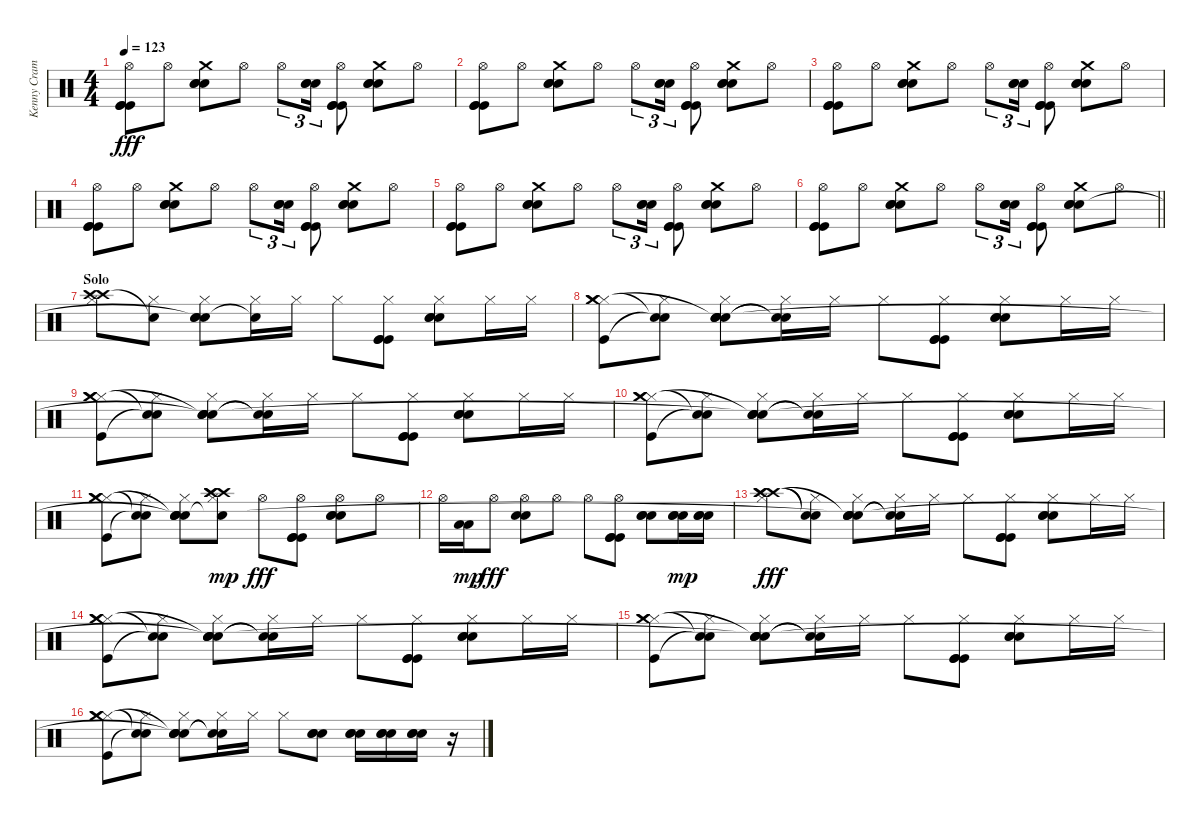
\track ("Kenny Cramme - Drums" "Kenny Cram") {instrument percussion}
\staff {score}
\articulation defaults
\ts (4 4)
\tempo 123
\clef neutral
\ks c
("Hi-Hat (open)" "Kick (hit)" "Kick (hit)" "Kick (hit)").8{dy fff} "Hi-Hat (open)".8 ("Crash medium (hit)" "Snare (hit) 2" "Snare (hit) 2" "Snare (hit) 2").8 "Hi-Hat (open)".8 "Hi-Hat (open)".8{tu (3 2)} ("Snare (hit) 2" "Snare (hit) 2" "Snare (hit) 2").16{tu (3 2)} ("Hi-Hat (open)" "Kick (hit)" "Kick (hit)" "Kick (hit)").8 ("Crash medium (hit)" "Snare (hit) 2" "Snare (hit) 2" "Snare (hit) 2").8 "Hi-Hat (open)".8 |
("Hi-Hat (open)" "Kick (hit)" "Kick (hit)" "Kick (hit)").8 "Hi-Hat (open)".8 ("Crash medium (hit)" "Snare (hit) 2" "Snare (hit) 2" "Snare (hit) 2").8 "Hi-Hat (open)".8 "Hi-Hat (open)".8{tu (3 2)} ("Snare (hit) 2" "Snare (hit) 2" "Snare (hit) 2").16{tu (3 2)} ("Hi-Hat (open)" "Kick (hit)" "Kick (hit)" "Kick (hit)").8 ("Crash medium (hit)" "Snare (hit) 2" "Snare (hit) 2" "Snare (hit) 2").8 "Hi-Hat (open)".8 |
("Hi-Hat (open)" "Kick (hit)" "Kick (hit)" "Kick (hit)").8 "Hi-Hat (open)".8 ("Crash medium (hit)" "Snare (hit) 2" "Snare (hit) 2" "Snare (hit) 2").8 "Hi-Hat (open)".8 "Hi-Hat (open)".8{tu (3 2)} ("Snare (hit) 2" "Snare (hit) 2" "Snare (hit) 2").16{tu (3 2)} ("Hi-Hat (open)" "Kick (hit)" "Kick (hit)" "Kick (hit)").8 ("Crash medium (hit)" "Snare (hit) 2" "Snare (hit) 2" "Snare (hit) 2").8 "Hi-Hat (open)".8 |
("Hi-Hat (open)" "Kick (hit)" "Kick (hit)" "Kick (hit)").8 "Hi-Hat (open)".8 ("Crash medium (hit)" "Snare (hit) 2" "Snare (hit) 2" "Snare (hit) 2").8 "Hi-Hat (open)".8 "Hi-Hat (open)".8{tu (3 2)} ("Snare (hit) 2" "Snare (hit) 2" "Snare (hit) 2").16{tu (3 2)} ("Hi-Hat (open)" "Kick (hit)" "Kick (hit)" "Kick (hit)").8 ("Crash medium (hit)" "Snare (hit) 2" "Snare (hit) 2" "Snare (hit) 2").8 "Hi-Hat (open)".8 |
("Hi-Hat (open)" "Kick (hit)" "Kick (hit)" "Kick (hit)").8 "Hi-Hat (open)".8 ("Crash medium (hit)" "Snare (hit) 2" "Snare (hit) 2" "Snare (hit) 2").8 "Hi-Hat (open)".8 "Hi-Hat (open)".8{tu (3 2)} ("Snare (hit) 2" "Snare (hit) 2" "Snare (hit) 2").16{tu (3 2)} ("Hi-Hat (open)" "Kick (hit)" "Kick (hit)" "Kick (hit)").8 ("Crash medium (hit)" "Snare (hit) 2" "Snare (hit) 2" "Snare (hit) 2").8 "Hi-Hat (open)".8 |
\barLineRight lightlight
("Hi-Hat (open)" "Kick (hit)" "Kick (hit)" "Kick (hit)").8 "Hi-Hat (open)".8 ("Crash medium (hit)" "Snare (hit) 2" "Snare (hit) 2" "Snare (hit) 2").8 "Hi-Hat (open)".8 "Hi-Hat (open)".8{tu (3 2)} ("Snare (hit) 2" "Snare (hit) 2" "Snare (hit) 2").16{tu (3 2)} ("Hi-Hat (open)" "Kick (hit)" "Kick (hit)" "Kick (hit)").8 ("Crash medium (hit)" "Snare (hit) 2" "Snare (hit) 2" "Snare (hit) 2").8 "Hi-Hat (open)".8 |
\section ("" "Solo")
("Hi-Hat (closed)" "Crash high (hit)" "Crash high (hit)").8 ("Hi-Hat (closed)" "Snare (hit)"{t}).8 ("Hi-Hat (closed)" "Snare (hit) 2" "Snare (hit) 2" "Snare (hit) 2"{t}).8 ("Hi-Hat (closed)" "Snare (hit)"{t}).16 "Hi-Hat (closed)".16 "Hi-Hat (closed)".8 ("Hi-Hat (closed)" "Kick (hit)" "Kick (hit)" "Kick (hit)").8 ("Hi-Hat (closed)" "Snare (hit) 2" "Snare (hit) 2" "Snare (hit) 2").8 "Hi-Hat (closed)".16 "Hi-Hat (closed)".16 |
("Hi-Hat (closed)" "Kick (hit)" "Crash medium (hit)" "Crash medium (hit)").8 ("Hi-Hat (closed)" "Snare (hit)"{t} "Snare (hit)"{t}).8 ("Hi-Hat (closed)" "Snare (hit) 2" "Snare (hit) 2" "Snare (hit) 2"{t} "Snare (hit)").8 ("Hi-Hat (closed)" "Snare (hit)"{t} "Snare (hit)"{t}).16 "Hi-Hat (closed)".16 "Hi-Hat (closed)".8 ("Hi-Hat (closed)" "Kick (hit)" "Kick (hit)" "Kick (hit)").8 ("Hi-Hat (closed)" "Snare (hit) 2" "Snare (hit) 2" "Snare (hit) 2").8 "Hi-Hat (closed)".16 "Hi-Hat (closed)".16 |
("Hi-Hat (closed)" "Kick (hit)" "Crash medium (hit)" "Crash medium (hit)").8 ("Hi-Hat (closed)" "Snare (hit)"{t} "Snare (hit)"{t}).8 ("Hi-Hat (closed)" "Snare (hit) 2" "Snare (hit) 2" "Snare (hit) 2"{t} "Snare (hit)"{t}).8 ("Hi-Hat (closed)" "Snare (hit)"{t} "Snare (hit)"{t}).16 "Hi-Hat (closed)".16 "Hi-Hat (closed)".8 ("Hi-Hat (closed)" "Kick (hit)" "Kick (hit)" "Kick (hit)").8 ("Hi-Hat (closed)" "Snare (hit) 2" "Snare (hit) 2" "Snare (hit) 2").8 "Hi-Hat (closed)".16 "Hi-Hat (closed)".16 |
("Hi-Hat (closed)" "Kick (hit)" "Crash medium (hit)" "Crash medium (hit)").8 ("Hi-Hat (closed)" "Snare (hit)"{t} "Snare (hit)"{t}).8 ("Hi-Hat (closed)" "Snare (hit) 2" "Snare (hit) 2" "Snare (hit) 2"{t} "Snare (hit)"{t}).8 ("Hi-Hat (closed)" "Snare (hit)"{t} "Snare (hit)"{t}).16 "Hi-Hat (closed)".16 "Hi-Hat (closed)".8 ("Hi-Hat (closed)" "Kick (hit)" "Kick (hit)" "Kick (hit)").8 ("Hi-Hat (closed)" "Snare (hit) 2" "Snare (hit) 2" "Snare (hit) 2").8 "Hi-Hat (closed)".16 "Hi-Hat (closed)".16 |
("Hi-Hat (closed)" "Kick (hit)" "Crash medium (hit)" "Crash medium (hit)").8 ("Hi-Hat (closed)" "Snare (hit)"{t} "Snare (hit)"{t}).8 ("Hi-Hat (closed)" "Snare (hit) 2" "Snare (hit) 2" "Snare (hit) 2"{t} "Snare (hit)"{t}).8 ("Hi-Hat (closed)" "Crash high (hit)" "Crash high (hit)" "Crash high (hit)" "Snare (hit)"{t}).8{dy mp} "Hi-Hat (open)".8{dy fff} ("Hi-Hat (open)" "Kick (hit)" "Kick (hit)" "Kick (hit)").8 ("Hi-Hat (open)" "Snare (hit) 2" "Snare (hit) 2" "Snare (hit) 2").8 "Hi-Hat (open)".8 |
"Hi-Hat (open)".16 ("Low Tom (hit)" "Low Tom (hit)").16{dy mp} "Hi-Hat (open)".8{dy fff} ("Hi-Hat (open)" "Snare (hit) 2" "Snare (hit) 2").8 "Hi-Hat (open)".8 "Hi-Hat (open)".8 ("Hi-Hat (open)" "Kick (hit)" "Kick (hit)" "Kick (hit)").8 ("Snare (hit) 2" "Snare (hit) 2" "Snare (hit) 2").8 ("Snare (hit) 2" "Snare (hit) 2" "Snare (hit) 2").16{dy mp} ("Snare (hit) 2" "Snare (hit) 2" "Snare (hit) 2").16 |
("Hi-Hat (closed)" "Crash high (hit)" "Crash high (hit)" "Crash high (hit)").8{dy fff} ("Hi-Hat (closed)" "Snare (hit)"{t} "Snare (hit)"{t}).8 ("Hi-Hat (closed)" "Snare (hit) 2" "Snare (hit) 2" "Snare (hit) 2"{t} "Snare (hit)"{t}).8 ("Hi-Hat (closed)" "Snare (hit)"{t} "Snare (hit)"{t}).16 "Hi-Hat (closed)".16 "Hi-Hat (closed)".8 ("Hi-Hat (closed)" "Kick (hit)" "Kick (hit)" "Kick (hit)").8 ("Hi-Hat (closed)" "Snare (hit) 2" "Snare (hit) 2" "Snare (hit) 2").8 "Hi-Hat (closed)".16 "Hi-Hat (closed)".16 |
("Hi-Hat (closed)" "Kick (hit)" "Crash medium (hit)" "Crash medium (hit)").8 ("Hi-Hat (closed)" "Snare (hit)"{t} "Snare (hit)"{t}).8 ("Hi-Hat (closed)" "Snare (hit) 2" "Snare (hit) 2" "Snare (hit) 2"{t} "Snare (hit)"{t}).8 ("Hi-Hat (closed)" "Snare (hit)"{t} "Snare (hit)"{t}).16 "Hi-Hat (closed)".16 "Hi-Hat (closed)".8 ("Hi-Hat (closed)" "Kick (hit)" "Kick (hit)" "Kick (hit)").8 ("Hi-Hat (closed)" "Snare (hit) 2" "Snare (hit) 2" "Snare (hit) 2").8 "Hi-Hat (closed)".16 "Hi-Hat (closed)".16 |
("Hi-Hat (closed)" "Kick (hit)" "Crash medium (hit)" "Crash medium (hit)").8 ("Hi-Hat (closed)" "Snare (hit)"{t} "Snare (hit)"{t}).8 ("Hi-Hat (closed)" "Snare (hit) 2" "Snare (hit) 2" "Snare (hit) 2"{t} "Snare (hit)"{t}).8 ("Hi-Hat (closed)" "Snare (hit)"{t} "Snare (hit)"{t}).16 "Hi-Hat (closed)".16 "Hi-Hat (closed)".8 ("Hi-Hat (closed)" "Kick (hit)" "Kick (hit)" "Kick (hit)").8 ("Hi-Hat (closed)" "Snare (hit) 2" "Snare (hit) 2" "Snare (hit) 2").8 "Hi-Hat (closed)".16 "Hi-Hat (closed)".16 |
("Hi-Hat (closed)" "Kick (hit)" "Crash medium (hit)" "Crash medium (hit)").8 ("Hi-Hat (closed)" "Snare (hit)"{t} "Snare (hit)"{t}).8 ("Hi-Hat (closed)" "Snare (hit) 2" "Snare (hit) 2" "Snare (hit) 2"{t} "Snare (hit)"{t}).8 ("Hi-Hat (closed)" "Snare (hit)"{t} "Snare (hit)"{t}).16 "Hi-Hat (closed)".16 "Hi-Hat (closed)".8 ("Snare (hit) 2" "Snare (hit) 2" "Snare (hit) 2").8 ("Snare (hit) 2" "Snare (hit) 2" "Snare (hit) 2").16 ("Snare (hit) 2" "Snare (hit) 2" "Snare (hit) 2").16 ("Snare (hit) 2" "Snare (hit) 2" "Snare (hit) 2").16 r.16
